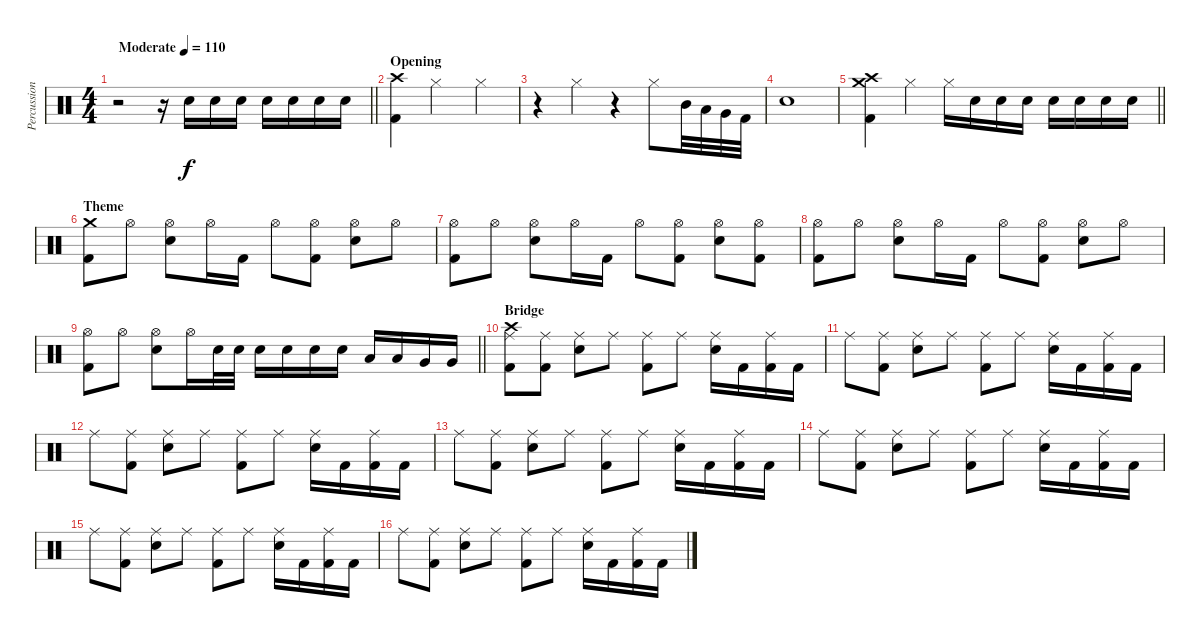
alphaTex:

\track ("Percussion" "Percussion") {instrument percussion}
\staff {score}
\articulation defaults
\ts (4 4)
\tempo (110 "Moderate")
\clef neutral
\barLineRight lightlight
\ks c
r.2{dy f} r.16 "Snare (hit) 2".16 "Snare (hit) 2".16 "Snare (hit) 2".16 "Snare (hit) 2".16 "Snare (hit) 2".16 "Snare (hit) 2".16 "Snare (hit) 2".16 |
\section ("" "Opening")
("Crash high (hit)" "Kick (hit) 2").4 "Hi-Hat (closed)".2 "Hi-Hat (closed)".4 |
r.4 "Hi-Hat (closed)".4 r.4 "Hi-Hat (closed)".8 "Mid Tom (hit)".32 "Low Tom (hit)".32 "Very Low Tom (hit)".32 "Kick (hit) 2".32 |
"Snare (hit) 2".1 |
\barLineRight lightlight
("Crash medium (hit)" "Crash high (hit)" "Kick (hit) 2").4 "Hi-Hat (closed)".4 "Hi-Hat (closed)".16 "Snare (hit) 2".16 "Snare (hit) 2".16 "Snare (hit) 2".16 "Snare (hit) 2".16 "Snare (hit) 2".16 "Snare (hit) 2".16 "Snare (hit) 2".16 |
\section ("" "Theme")
("Crash medium (hit)" "Kick (hit) 2").8 "Hi-Hat (open)".8 ("Hi-Hat (open)" "Snare (hit) 2").8 "Hi-Hat (open)".16 "Kick (hit) 2".16 "Hi-Hat (open)".8 ("Hi-Hat (open)" "Kick (hit) 2").8 ("Hi-Hat (open)" "Snare (hit) 2").8 "Hi-Hat (open)".8 |
("Hi-Hat (open)" "Kick (hit) 2").8 "Hi-Hat (open)".8 ("Hi-Hat (open)" "Snare (hit) 2").8 "Hi-Hat (open)".16 "Kick (hit) 2".16 "Hi-Hat (open)".8 ("Hi-Hat (open)" "Kick (hit) 2").8 ("Hi-Hat (open)" "Snare (hit) 2").8 ("Hi-Hat (open)" "Kick (hit) 2").8 |
("Hi-Hat (open)" "Kick (hit) 2").8 "Hi-Hat (open)".8 ("Hi-Hat (open)" "Snare (hit) 2").8 "Hi-Hat (open)".16 "Kick (hit) 2".16 "Hi-Hat (open)".8 ("Hi-Hat (open)" "Kick (hit) 2").8 ("Hi-Hat (open)" "Snare (hit) 2").8 "Hi-Hat (open)".8 |
\barLineRight lightlight
("Hi-Hat (open)" "Kick (hit) 2").8 "Hi-Hat (open)".8 ("Hi-Hat (open)" "Snare (hit) 2").8 "Hi-Hat (open)".16 "Snare (hit) 2".32 "Snare (hit) 2".32 "Snare (hit) 2".16 "Snare (hit) 2".16 "Snare (hit) 2".16 "Snare (hit) 2".16 "Low Tom (hit)".16 "Low Tom (hit)".16 "Very Low Tom (hit)".16 "Very Low Tom (hit)".16 |
\section ("" "Bridge")
("Crash high (hit)" "Ride (middle)" "Kick (hit) 2").8 ("Ride (middle)" "Kick (hit) 2").8 ("Ride (middle)" "Snare (hit) 2").8 "Ride (middle)".8 ("Ride (middle)" "Kick (hit) 2").8 "Ride (middle)".8 ("Ride (middle)" "Snare (hit) 2").16 "Kick (hit) 2".16 ("Ride (middle)" "Kick (hit) 2").16 "Kick (hit) 2".16 |
"Ride (middle)".8 ("Ride (middle)" "Kick (hit) 2").8 ("Ride (middle)" "Snare (hit) 2").8 "Ride (middle)".8 ("Ride (middle)" "Kick (hit) 2").8 "Ride (middle)".8 ("Ride (middle)" "Snare (hit) 2").16 "Kick (hit) 2".16 ("Ride (middle)" "Kick (hit) 2").16 "Kick (hit) 2".16 |
"Ride (middle)".8 ("Ride (middle)" "Kick (hit) 2").8 ("Ride (middle)" "Snare (hit) 2").8 "Ride (middle)".8 ("Ride (middle)" "Kick (hit) 2").8 "Ride (middle)".8 ("Ride (middle)" "Snare (hit) 2").16 "Kick (hit) 2".16 ("Ride (middle)" "Kick (hit) 2").16 "Kick (hit) 2".16 |
"Ride (middle)".8 ("Ride (middle)" "Kick (hit) 2").8 ("Ride (middle)" "Snare (hit) 2").8 "Ride (middle)".8 ("Ride (middle)" "Kick (hit) 2").8 "Ride (middle)".8 ("Ride (middle)" "Snare (hit) 2").16 "Kick (hit) 2".16 ("Ride (middle)" "Kick (hit) 2").16 "Kick (hit) 2".16 |
"Ride (middle)".8 ("Ride (middle)" "Kick (hit) 2").8 ("Ride (middle)" "Snare (hit) 2").8 "Ride (middle)".8 ("Ride (middle)" "Kick (hit) 2").8 "Ride (middle)".8 ("Ride (middle)" "Snare (hit) 2").16 "Kick (hit) 2".16 ("Ride (middle)" "Kick (hit) 2").16 "Kick (hit) 2".16 |
"Ride (middle)".8 ("Ride (middle)" "Kick (hit) 2").8 ("Ride (middle)" "Snare (hit) 2").8 "Ride (middle)".8 ("Ride (middle)" "Kick (hit) 2").8 "Ride (middle)".8 ("Ride (middle)" "Snare (hit) 2").16 "Kick (hit) 2".16 ("Ride (middle)" "Kick (hit) 2").16 "Kick (hit) 2".16 |
"Ride (middle)".8 ("Ride (middle)" "Kick (hit) 2").8 ("Ride (middle)" "Snare (hit) 2").8 "Ride (middle)".8 ("Ride (middle)" "Kick (hit) 2").8 "Ride (middle)".8 ("Ride (middle)" "Snare (hit) 2").16 "Kick (hit) 2".16 ("Ride (middle)" "Kick (hit) 2").16 "Kick (hit) 2".16
